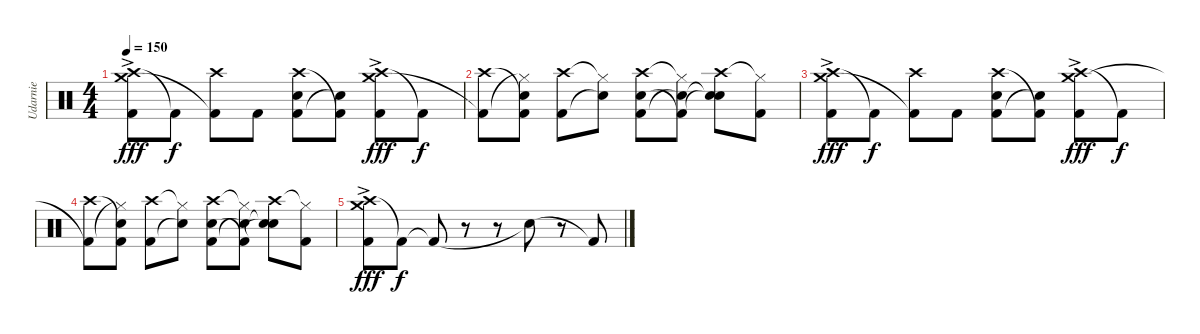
\track ("Udarnie" "Udarnie") {instrument percussion}
\staff {score}
\articulation defaults
\ts (4 4)
\tempo 150
\clef neutral
\ks c
("Crash high (hit)" "Crash medium (hit)"{ac} "Kick (hit) 2").8{dy fff} "Kick (hit) 2"{t}.8{dy f} ("Crash high (hit)" "Kick (hit) 2"{t}).8 "Kick (hit) 2".8 ("Crash high (hit)" "Kick (hit) 2" "Snare (hit) 2").8 ("Kick (hit) 2"{t} "Snare (hit) 2"{t}).8 ("Crash high (hit)" "Crash medium (hit)"{ac} "Kick (hit) 2").8{dy fff} "Kick (hit) 2"{t}.8{dy f} |
("Crash high (hit)" "Kick (hit) 2"{t}).8 ("Snare (hit)"{t} "Hi-Hat (closed)"{t} "Kick (hit) 2").8 ("Crash high (hit)" "Kick (hit) 2").8 ("Hi-Hat (closed)"{t} "Snare (hit)"{t}).8 ("Crash high (hit)" "Snare (hit) 2" "Kick (hit) 2").8 ("Hi-Hat (closed)"{t} "Kick (hit) 2"{t} "Snare (hit) 2"{t}).8 ("Crash high (hit)" "Snare (hit)"{t} "Snare (hit)"{t}).8 ("Hi-Hat (closed)"{t} "Kick (hit) 2").8 |
("Crash high (hit)" "Crash medium (hit)"{ac} "Kick (hit) 2").8{dy fff} "Kick (hit) 2"{t}.8{dy f} ("Crash high (hit)" "Kick (hit) 2"{t}).8 "Kick (hit) 2".8 ("Crash high (hit)" "Kick (hit) 2" "Snare (hit) 2").8 ("Kick (hit) 2"{t} "Snare (hit) 2"{t}).8 ("Crash high (hit)" "Crash medium (hit)"{ac} "Kick (hit) 2").8{dy fff} "Kick (hit) 2"{t}.8{dy f} |
("Crash high (hit)" "Kick (hit) 2"{t}).8 ("Snare (hit)"{t} "Hi-Hat (closed)"{t} "Kick (hit) 2").8 ("Crash high (hit)" "Kick (hit) 2").8 ("Hi-Hat (closed)"{t} "Snare (hit)"{t}).8 ("Crash high (hit)" "Snare (hit) 2" "Kick (hit) 2").8 ("Hi-Hat (closed)"{t} "Kick (hit) 2"{t} "Snare (hit) 2"{t}).8 ("Crash high (hit)" "Snare (hit)"{t} "Snare (hit)"{t}).8 ("Hi-Hat (closed)"{t} "Kick (hit) 2").8 |
("Crash high (hit)" "Crash medium (hit)"{ac} "Kick (hit) 2").8{dy fff} "Kick (hit) 2"{t}.8{dy f} "Kick (hit) 2"{t}.8 r.8 r.8 "Snare (hit) 2"{t}.8 r.8 "Kick (hit) 2"{t}.8
